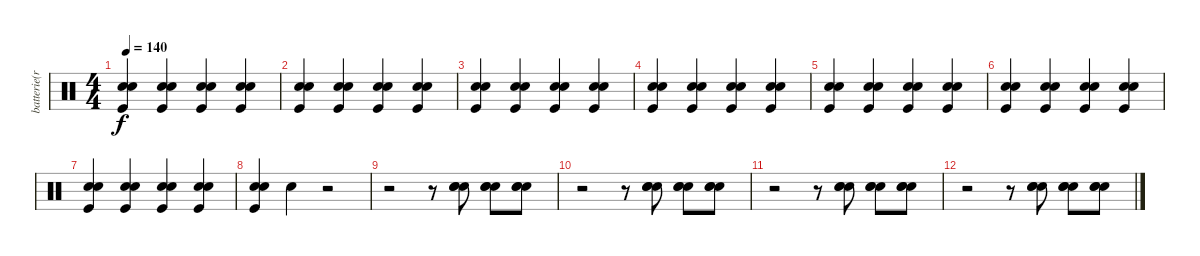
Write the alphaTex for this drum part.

\track ("batterie(ricky)" "batterie(r") {instrument percussion}
\staff {score}
\articulation defaults
\ts (4 4)
\tempo 140
\clef neutral
\ks c
("Hand Clap (hit)" "Snare (hit) 2" "Kick (hit)").4{dy f} ("Hand Clap (hit)" "Snare (hit) 2" "Kick (hit)").4 ("Hand Clap (hit)" "Snare (hit) 2" "Kick (hit)").4 ("Hand Clap (hit)" "Snare (hit) 2" "Kick (hit)").4 |
("Hand Clap (hit)" "Snare (hit) 2" "Kick (hit)").4 ("Hand Clap (hit)" "Snare (hit) 2" "Kick (hit)").4 ("Hand Clap (hit)" "Snare (hit) 2" "Kick (hit)").4 ("Hand Clap (hit)" "Snare (hit) 2" "Kick (hit)").4 |
("Hand Clap (hit)" "Snare (hit) 2" "Kick (hit)").4 ("Hand Clap (hit)" "Snare (hit) 2" "Kick (hit)").4 ("Hand Clap (hit)" "Snare (hit) 2" "Kick (hit)").4 ("Hand Clap (hit)" "Snare (hit) 2" "Kick (hit)").4 |
("Hand Clap (hit)" "Snare (hit) 2" "Kick (hit)").4 ("Hand Clap (hit)" "Snare (hit) 2" "Kick (hit)").4 ("Hand Clap (hit)" "Snare (hit) 2" "Kick (hit)").4 ("Hand Clap (hit)" "Snare (hit) 2" "Kick (hit)").4 |
("Hand Clap (hit)" "Snare (hit) 2" "Kick (hit)").4 ("Hand Clap (hit)" "Snare (hit) 2" "Kick (hit)").4 ("Hand Clap (hit)" "Snare (hit) 2" "Kick (hit)").4 ("Hand Clap (hit)" "Snare (hit) 2" "Kick (hit)").4 |
("Hand Clap (hit)" "Snare (hit) 2" "Kick (hit)").4 ("Hand Clap (hit)" "Snare (hit) 2" "Kick (hit)").4 ("Hand Clap (hit)" "Snare (hit) 2" "Kick (hit)").4 ("Hand Clap (hit)" "Snare (hit) 2" "Kick (hit)").4 |
("Hand Clap (hit)" "Snare (hit) 2" "Kick (hit)").4 ("Hand Clap (hit)" "Snare (hit) 2" "Kick (hit)").4 ("Hand Clap (hit)" "Snare (hit) 2" "Kick (hit)").4 ("Hand Clap (hit)" "Snare (hit) 2" "Kick (hit)").4 |
("Hand Clap (hit)" "Snare (hit) 2" "Kick (hit)").4 "Hand Clap (hit)".4 r.2 |
r.2 r.8 ("Hand Clap (hit)" "Hand Clap (hit)" "Hand Clap (hit)").8 ("Hand Clap (hit)" "Hand Clap (hit)" "Hand Clap (hit)").8 ("Hand Clap (hit)" "Hand Clap (hit)" "Hand Clap (hit)").8 |
r.2 r.8 ("Hand Clap (hit)" "Hand Clap (hit)" "Hand Clap (hit)").8 ("Hand Clap (hit)" "Hand Clap (hit)" "Hand Clap (hit)").8 ("Hand Clap (hit)" "Hand Clap (hit)" "Hand Clap (hit)").8 |
r.2 r.8 ("Hand Clap (hit)" "Hand Clap (hit)" "Hand Clap (hit)").8 ("Hand Clap (hit)" "Hand Clap (hit)" "Hand Clap (hit)").8 ("Hand Clap (hit)" "Hand Clap (hit)" "Hand Clap (hit)").8 |
r.2 r.8 ("Hand Clap (hit)" "Hand Clap (hit)" "Hand Clap (hit)").8 ("Hand Clap (hit)" "Hand Clap (hit)" "Hand Clap (hit)").8 ("Hand Clap (hit)" "Hand Clap (hit)" "Hand Clap (hit)").8
